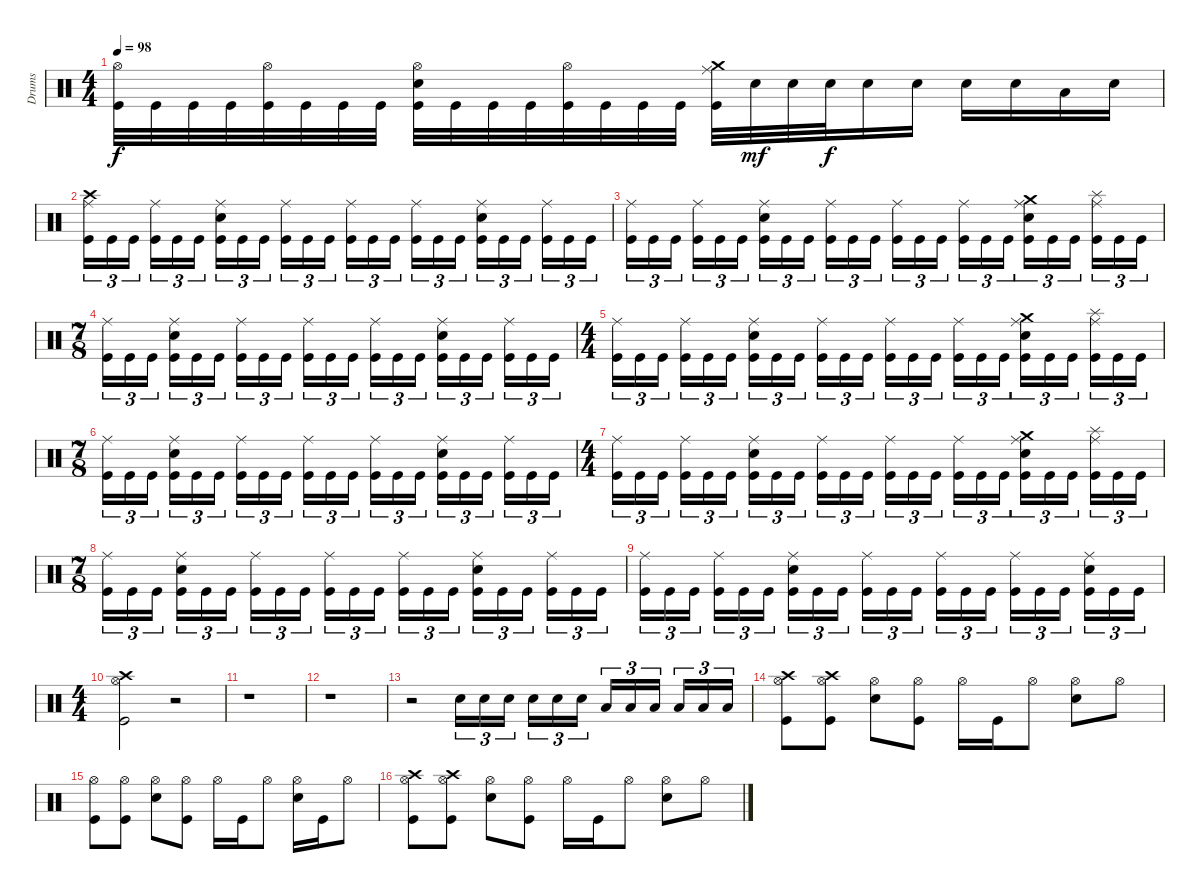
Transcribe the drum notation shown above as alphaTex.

\track ("Drums" "Drums") {instrument percussion}
\staff {score}
\articulation defaults
\ts (4 4)
\tempo 98
\clef neutral
\ks aminor
("Hi-Hat (open)" "Kick (hit)").32{dy f} "Kick (hit)".32 "Kick (hit)".32 "Kick (hit)".32 ("Hi-Hat (open)" "Kick (hit)").32 "Kick (hit)".32 "Kick (hit)".32 "Kick (hit)".32 ("Hi-Hat (open)" "Electric Snare (hit)" "Kick (hit)").32 "Kick (hit)".32 "Kick (hit)".32 "Kick (hit)".32 ("Hi-Hat (open)" "Kick (hit)").32 "Kick (hit)".32 "Kick (hit)".32 "Kick (hit)".32 ("Crash medium (hit)" "Ride (middle)" "Kick (hit)").32 "Electric Snare (hit)".32{dy mf} "Electric Snare (hit)".32 "Electric Snare (hit)".32{dy f} "Electric Snare (hit)".16 "Electric Snare (hit)".16 "Electric Snare (hit)".16 "Electric Snare (hit)".16 "Low Tom (hit)".16 "Electric Snare (hit)".16 |
("Crash high (hit)" "Ride (middle)" "Kick (hit)").16{tu (3 2)} "Kick (hit)".16{tu (3 2)} "Kick (hit)".16{tu (3 2) beam splitsecondary} ("Ride (middle)" "Kick (hit)").16{tu (3 2)} "Kick (hit)".16{tu (3 2)} "Kick (hit)".16{tu (3 2)} ("Ride (middle)" "Electric Snare (hit)" "Kick (hit)").16{tu (3 2)} "Kick (hit)".16{tu (3 2)} "Kick (hit)".16{tu (3 2) beam splitsecondary} ("Ride (middle)" "Kick (hit)").16{tu (3 2)} "Kick (hit)".16{tu (3 2)} "Kick (hit)".16{tu (3 2)} ("Ride (middle)" "Kick (hit)").16{tu (3 2)} "Kick (hit)".16{tu (3 2)} "Kick (hit)".16{tu (3 2) beam splitsecondary} ("Ride (middle)" "Kick (hit)").16{tu (3 2)} "Kick (hit)".16{tu (3 2)} "Kick (hit)".16{tu (3 2)} ("Ride (middle)" "Electric Snare (hit)" "Kick (hit)").16{tu (3 2)} "Kick (hit)".16{tu (3 2)} "Kick (hit)".16{tu (3 2) beam splitsecondary} ("Ride (middle)" "Kick (hit)").16{tu (3 2)} "Kick (hit)".16{tu (3 2)} "Kick (hit)".16{tu (3 2)} |
("Ride (middle)" "Kick (hit)").16{tu (3 2)} "Kick (hit)".16{tu (3 2)} "Kick (hit)".16{tu (3 2) beam splitsecondary} ("Ride (middle)" "Kick (hit)").16{tu (3 2)} "Kick (hit)".16{tu (3 2)} "Kick (hit)".16{tu (3 2)} ("Ride (middle)" "Electric Snare (hit)" "Kick (hit)").16{tu (3 2)} "Kick (hit)".16{tu (3 2)} "Kick (hit)".16{tu (3 2) beam splitsecondary} ("Ride (middle)" "Kick (hit)").16{tu (3 2)} "Kick (hit)".16{tu (3 2)} "Kick (hit)".16{tu (3 2)} ("Ride (middle)" "Kick (hit)").16{tu (3 2)} "Kick (hit)".16{tu (3 2)} "Kick (hit)".16{tu (3 2) beam splitsecondary} ("Ride (middle)" "Kick (hit)").16{tu (3 2)} "Kick (hit)".16{tu (3 2)} "Kick (hit)".16{tu (3 2)} ("Crash medium (hit)" "Ride (middle)" "Electric Snare (hit)" "Kick (hit)").16{tu (3 2)} "Kick (hit)".16{tu (3 2)} "Kick (hit)".16{tu (3 2) beam splitsecondary} ("Splash (hit)" "Ride (middle)" "Kick (hit)").16{tu (3 2)} "Kick (hit)".16{tu (3 2)} "Kick (hit)".16{tu (3 2)} |
\ts (7 8)
("Ride (middle)" "Kick (hit)").16{tu (3 2)} "Kick (hit)".16{tu (3 2)} "Kick (hit)".16{tu (3 2)} ("Ride (middle)" "Electric Snare (hit)" "Kick (hit)").16{tu (3 2)} "Kick (hit)".16{tu (3 2)} "Kick (hit)".16{tu (3 2)} ("Ride (middle)" "Kick (hit)").16{tu (3 2)} "Kick (hit)".16{tu (3 2)} "Kick (hit)".16{tu (3 2)} ("Ride (middle)" "Kick (hit)").16{tu (3 2)} "Kick (hit)".16{tu (3 2)} "Kick (hit)".16{tu (3 2)} ("Ride (middle)" "Kick (hit)").16{tu (3 2)} "Kick (hit)".16{tu (3 2)} "Kick (hit)".16{tu (3 2)} ("Ride (middle)" "Electric Snare (hit)" "Kick (hit)").16{tu (3 2)} "Kick (hit)".16{tu (3 2)} "Kick (hit)".16{tu (3 2)} ("Ride (middle)" "Kick (hit)").16{tu (3 2)} "Kick (hit)".16{tu (3 2)} "Kick (hit)".16{tu (3 2)} |
\ts (4 4)
("Ride (middle)" "Kick (hit)").16{tu (3 2)} "Kick (hit)".16{tu (3 2)} "Kick (hit)".16{tu (3 2) beam splitsecondary} ("Ride (middle)" "Kick (hit)").16{tu (3 2)} "Kick (hit)".16{tu (3 2)} "Kick (hit)".16{tu (3 2)} ("Ride (middle)" "Electric Snare (hit)" "Kick (hit)").16{tu (3 2)} "Kick (hit)".16{tu (3 2)} "Kick (hit)".16{tu (3 2) beam splitsecondary} ("Ride (middle)" "Kick (hit)").16{tu (3 2)} "Kick (hit)".16{tu (3 2)} "Kick (hit)".16{tu (3 2)} ("Ride (middle)" "Kick (hit)").16{tu (3 2)} "Kick (hit)".16{tu (3 2)} "Kick (hit)".16{tu (3 2) beam splitsecondary} ("Ride (middle)" "Kick (hit)").16{tu (3 2)} "Kick (hit)".16{tu (3 2)} "Kick (hit)".16{tu (3 2)} ("Crash medium (hit)" "Ride (middle)" "Electric Snare (hit)" "Kick (hit)").16{tu (3 2)} "Kick (hit)".16{tu (3 2)} "Kick (hit)".16{tu (3 2) beam splitsecondary} ("Splash (hit)" "Ride (middle)" "Kick (hit)").16{tu (3 2)} "Kick (hit)".16{tu (3 2)} "Kick (hit)".16{tu (3 2)} |
\ts (7 8)
("Ride (middle)" "Kick (hit)").16{tu (3 2)} "Kick (hit)".16{tu (3 2)} "Kick (hit)".16{tu (3 2)} ("Ride (middle)" "Electric Snare (hit)" "Kick (hit)").16{tu (3 2)} "Kick (hit)".16{tu (3 2)} "Kick (hit)".16{tu (3 2)} ("Ride (middle)" "Kick (hit)").16{tu (3 2)} "Kick (hit)".16{tu (3 2)} "Kick (hit)".16{tu (3 2)} ("Ride (middle)" "Kick (hit)").16{tu (3 2)} "Kick (hit)".16{tu (3 2)} "Kick (hit)".16{tu (3 2)} ("Ride (middle)" "Kick (hit)").16{tu (3 2)} "Kick (hit)".16{tu (3 2)} "Kick (hit)".16{tu (3 2)} ("Ride (middle)" "Electric Snare (hit)" "Kick (hit)").16{tu (3 2)} "Kick (hit)".16{tu (3 2)} "Kick (hit)".16{tu (3 2)} ("Ride (middle)" "Kick (hit)").16{tu (3 2)} "Kick (hit)".16{tu (3 2)} "Kick (hit)".16{tu (3 2)} |
\ts (4 4)
("Ride (middle)" "Kick (hit)").16{tu (3 2)} "Kick (hit)".16{tu (3 2)} "Kick (hit)".16{tu (3 2) beam splitsecondary} ("Ride (middle)" "Kick (hit)").16{tu (3 2)} "Kick (hit)".16{tu (3 2)} "Kick (hit)".16{tu (3 2)} ("Ride (middle)" "Electric Snare (hit)" "Kick (hit)").16{tu (3 2)} "Kick (hit)".16{tu (3 2)} "Kick (hit)".16{tu (3 2) beam splitsecondary} ("Ride (middle)" "Kick (hit)").16{tu (3 2)} "Kick (hit)".16{tu (3 2)} "Kick (hit)".16{tu (3 2)} ("Ride (middle)" "Kick (hit)").16{tu (3 2)} "Kick (hit)".16{tu (3 2)} "Kick (hit)".16{tu (3 2) beam splitsecondary} ("Ride (middle)" "Kick (hit)").16{tu (3 2)} "Kick (hit)".16{tu (3 2)} "Kick (hit)".16{tu (3 2)} ("Crash medium (hit)" "Ride (middle)" "Electric Snare (hit)" "Kick (hit)").16{tu (3 2)} "Kick (hit)".16{tu (3 2)} "Kick (hit)".16{tu (3 2) beam splitsecondary} ("Splash (hit)" "Ride (middle)" "Kick (hit)").16{tu (3 2)} "Kick (hit)".16{tu (3 2)} "Kick (hit)".16{tu (3 2)} |
\ts (7 8)
("Ride (middle)" "Kick (hit)").16{tu (3 2)} "Kick (hit)".16{tu (3 2)} "Kick (hit)".16{tu (3 2)} ("Ride (middle)" "Electric Snare (hit)" "Kick (hit)").16{tu (3 2)} "Kick (hit)".16{tu (3 2)} "Kick (hit)".16{tu (3 2)} ("Ride (middle)" "Kick (hit)").16{tu (3 2)} "Kick (hit)".16{tu (3 2)} "Kick (hit)".16{tu (3 2)} ("Ride (middle)" "Kick (hit)").16{tu (3 2)} "Kick (hit)".16{tu (3 2)} "Kick (hit)".16{tu (3 2)} ("Ride (middle)" "Kick (hit)").16{tu (3 2)} "Kick (hit)".16{tu (3 2)} "Kick (hit)".16{tu (3 2)} ("Ride (middle)" "Electric Snare (hit)" "Kick (hit)").16{tu (3 2)} "Kick (hit)".16{tu (3 2)} "Kick (hit)".16{tu (3 2)} ("Ride (middle)" "Kick (hit)").16{tu (3 2)} "Kick (hit)".16{tu (3 2)} "Kick (hit)".16{tu (3 2)} |
("Ride (middle)" "Kick (hit)").16{tu (3 2)} "Kick (hit)".16{tu (3 2)} "Kick (hit)".16{tu (3 2)} ("Ride (middle)" "Kick (hit)").16{tu (3 2)} "Kick (hit)".16{tu (3 2)} "Kick (hit)".16{tu (3 2)} ("Ride (middle)" "Electric Snare (hit)" "Kick (hit)").16{tu (3 2)} "Kick (hit)".16{tu (3 2)} "Kick (hit)".16{tu (3 2)} ("Ride (middle)" "Kick (hit)").16{tu (3 2)} "Kick (hit)".16{tu (3 2)} "Kick (hit)".16{tu (3 2)} ("Ride (middle)" "Kick (hit)").16{tu (3 2)} "Kick (hit)".16{tu (3 2)} "Kick (hit)".16{tu (3 2)} ("Ride (middle)" "Kick (hit)").16{tu (3 2)} "Kick (hit)".16{tu (3 2)} "Kick (hit)".16{tu (3 2)} ("Ride (middle)" "Electric Snare (hit)" "Kick (hit)").16{tu (3 2)} "Kick (hit)".16{tu (3 2)} "Kick (hit)".16{tu (3 2)} |
\ts (4 4)
("Crash high (hit)" "Hi-Hat (open)" "Kick (hit)").2 r.2 |
r.1 |
r.1 |
r.2 "Electric Snare (hit)".16{tu (3 2)} "Electric Snare (hit)".16{tu (3 2)} "Electric Snare (hit)".16{tu (3 2) beam splitsecondary} "Electric Snare (hit)".16{tu (3 2)} "Electric Snare (hit)".16{tu (3 2)} "Electric Snare (hit)".16{tu (3 2)} "Low Tom (hit)".16{tu (3 2)} "Low Tom (hit)".16{tu (3 2)} "Low Tom (hit)".16{tu (3 2) beam splitsecondary} "Low Tom (hit)".16{tu (3 2)} "Low Tom (hit)".16{tu (3 2)} "Low Tom (hit)".16{tu (3 2)} |
("Crash high (hit)" "Hi-Hat (open)" "Kick (hit)").8 ("Crash high (hit)" "Hi-Hat (open)" "Kick (hit)").8 ("Hi-Hat (open)" "Electric Snare (hit)").8 ("Hi-Hat (open)" "Kick (hit)").8 "Hi-Hat (open)".16 "Kick (hit)".16 "Hi-Hat (open)".8 ("Hi-Hat (open)" "Electric Snare (hit)").8 "Hi-Hat (open)".8 |
("Hi-Hat (open)" "Kick (hit)").8 ("Hi-Hat (open)" "Kick (hit)").8 ("Hi-Hat (open)" "Electric Snare (hit)").8 ("Hi-Hat (open)" "Kick (hit)").8 "Hi-Hat (open)".16 "Kick (hit)".16 "Hi-Hat (open)".8 ("Hi-Hat (open)" "Electric Snare (hit)").16 "Kick (hit)".16 "Hi-Hat (open)".8 |
("Crash high (hit)" "Hi-Hat (open)" "Kick (hit)").8 ("Crash high (hit)" "Hi-Hat (open)" "Kick (hit)").8 ("Hi-Hat (open)" "Electric Snare (hit)").8 ("Hi-Hat (open)" "Kick (hit)").8 "Hi-Hat (open)".16 "Kick (hit)".16 "Hi-Hat (open)".8 ("Hi-Hat (open)" "Electric Snare (hit)").8 "Hi-Hat (open)".8
